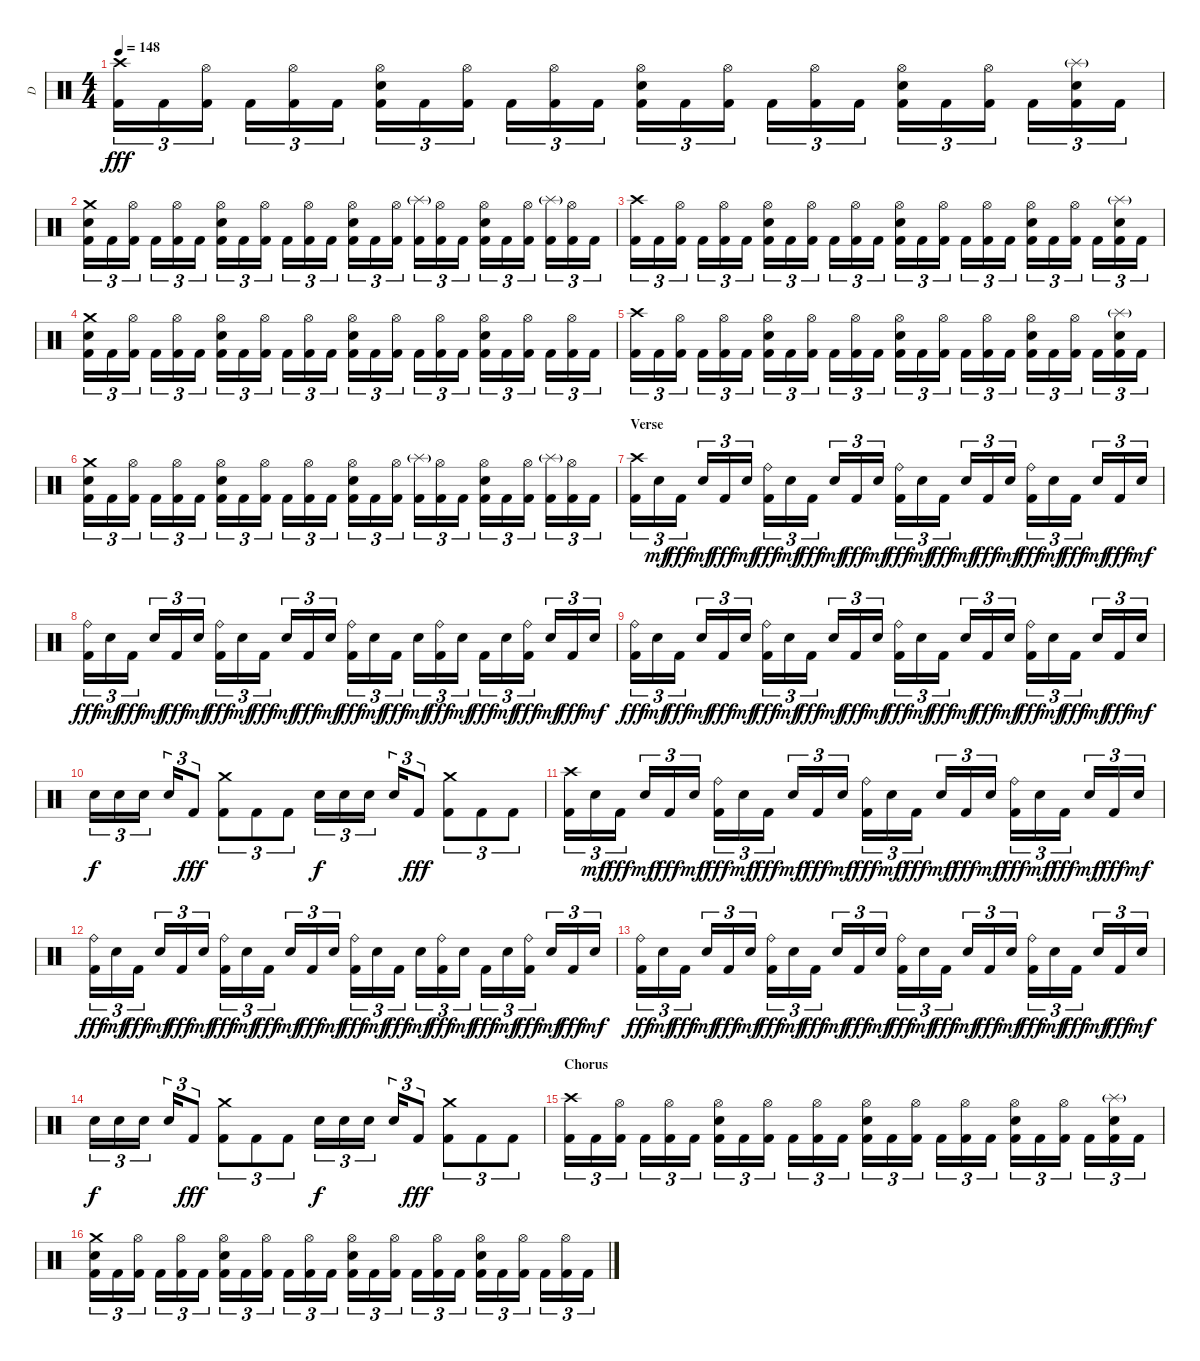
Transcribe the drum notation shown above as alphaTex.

\track ("D" "D") {instrument percussion}
\staff {score}
\articulation defaults
\ts (4 4)
\tempo 148
\clef neutral
\ks c
("Crash high (hit)" "Kick (hit) 2").16{tu (3 2) dy fff} "Kick (hit) 2".16{tu (3 2)} ("Hi-Hat (open)" "Kick (hit) 2").16{tu (3 2)} "Kick (hit) 2".16{tu (3 2)} ("Hi-Hat (open)" "Kick (hit) 2").16{tu (3 2)} "Kick (hit) 2".16{tu (3 2)} ("Hi-Hat (open)" "Electric Snare (hit)" "Kick (hit) 2").16{tu (3 2)} "Kick (hit) 2".16{tu (3 2)} ("Hi-Hat (open)" "Kick (hit) 2").16{tu (3 2)} "Kick (hit) 2".16{tu (3 2)} ("Hi-Hat (open)" "Kick (hit) 2").16{tu (3 2)} "Kick (hit) 2".16{tu (3 2)} ("Hi-Hat (open)" "Electric Snare (hit)" "Kick (hit) 2").16{tu (3 2)} "Kick (hit) 2".16{tu (3 2)} ("Hi-Hat (open)" "Kick (hit) 2").16{tu (3 2)} "Kick (hit) 2".16{tu (3 2)} ("Hi-Hat (open)" "Kick (hit) 2").16{tu (3 2)} "Kick (hit) 2".16{tu (3 2)} ("Hi-Hat (open)" "Electric Snare (hit)" "Kick (hit) 2").16{tu (3 2)} "Kick (hit) 2".16{tu (3 2)} ("Hi-Hat (open)" "Kick (hit) 2").16{tu (3 2)} "Kick (hit) 2".16{tu (3 2)} ("Splash (hit)"{g} "Electric Snare (hit)" "Kick (hit) 2").16{tu (3 2)} "Kick (hit) 2".16{tu (3 2)} |
("Crash medium (hit)" "Electric Snare (hit)" "Kick (hit) 2").16{tu (3 2)} "Kick (hit) 2".16{tu (3 2)} ("Hi-Hat (open)" "Kick (hit) 2").16{tu (3 2)} "Kick (hit) 2".16{tu (3 2)} ("Hi-Hat (open)" "Kick (hit) 2").16{tu (3 2)} "Kick (hit) 2".16{tu (3 2)} ("Hi-Hat (open)" "Electric Snare (hit)" "Kick (hit) 2").16{tu (3 2)} "Kick (hit) 2".16{tu (3 2)} ("Hi-Hat (open)" "Kick (hit) 2").16{tu (3 2)} "Kick (hit) 2".16{tu (3 2)} ("Hi-Hat (open)" "Kick (hit) 2").16{tu (3 2)} "Kick (hit) 2".16{tu (3 2)} ("Hi-Hat (open)" "Electric Snare (hit)" "Kick (hit) 2").16{tu (3 2)} "Kick (hit) 2".16{tu (3 2)} ("Hi-Hat (open)" "Kick (hit) 2").16{tu (3 2)} ("Splash (hit)"{g} "Kick (hit) 2").16{tu (3 2)} ("Hi-Hat (open)" "Kick (hit) 2").16{tu (3 2)} "Kick (hit) 2".16{tu (3 2)} ("Hi-Hat (open)" "Electric Snare (hit)" "Kick (hit) 2").16{tu (3 2)} "Kick (hit) 2".16{tu (3 2)} ("Hi-Hat (open)" "Kick (hit) 2").16{tu (3 2)} ("Splash (hit)"{g} "Kick (hit) 2").16{tu (3 2)} ("Hi-Hat (open)" "Kick (hit) 2").16{tu (3 2)} "Kick (hit) 2".16{tu (3 2)} |
("Crash high (hit)" "Kick (hit) 2").16{tu (3 2)} "Kick (hit) 2".16{tu (3 2)} ("Hi-Hat (open)" "Kick (hit) 2").16{tu (3 2)} "Kick (hit) 2".16{tu (3 2)} ("Hi-Hat (open)" "Kick (hit) 2").16{tu (3 2)} "Kick (hit) 2".16{tu (3 2)} ("Hi-Hat (open)" "Electric Snare (hit)" "Kick (hit) 2").16{tu (3 2)} "Kick (hit) 2".16{tu (3 2)} ("Hi-Hat (open)" "Kick (hit) 2").16{tu (3 2)} "Kick (hit) 2".16{tu (3 2)} ("Hi-Hat (open)" "Kick (hit) 2").16{tu (3 2)} "Kick (hit) 2".16{tu (3 2)} ("Hi-Hat (open)" "Electric Snare (hit)" "Kick (hit) 2").16{tu (3 2)} "Kick (hit) 2".16{tu (3 2)} ("Hi-Hat (open)" "Kick (hit) 2").16{tu (3 2)} "Kick (hit) 2".16{tu (3 2)} ("Hi-Hat (open)" "Kick (hit) 2").16{tu (3 2)} "Kick (hit) 2".16{tu (3 2)} ("Hi-Hat (open)" "Electric Snare (hit)" "Kick (hit) 2").16{tu (3 2)} "Kick (hit) 2".16{tu (3 2)} ("Hi-Hat (open)" "Kick (hit) 2").16{tu (3 2)} "Kick (hit) 2".16{tu (3 2)} ("Splash (hit)"{g} "Electric Snare (hit)" "Kick (hit) 2").16{tu (3 2)} "Kick (hit) 2".16{tu (3 2)} |
("Crash medium (hit)" "Electric Snare (hit)" "Kick (hit) 2").16{tu (3 2)} "Kick (hit) 2".16{tu (3 2)} ("Hi-Hat (open)" "Kick (hit) 2").16{tu (3 2)} "Kick (hit) 2".16{tu (3 2)} ("Hi-Hat (open)" "Kick (hit) 2").16{tu (3 2)} "Kick (hit) 2".16{tu (3 2)} ("Hi-Hat (open)" "Electric Snare (hit)" "Kick (hit) 2").16{tu (3 2)} "Kick (hit) 2".16{tu (3 2)} ("Hi-Hat (open)" "Kick (hit) 2").16{tu (3 2)} "Kick (hit) 2".16{tu (3 2)} ("Hi-Hat (open)" "Kick (hit) 2").16{tu (3 2)} "Kick (hit) 2".16{tu (3 2)} ("Hi-Hat (open)" "Electric Snare (hit)" "Kick (hit) 2").16{tu (3 2)} "Kick (hit) 2".16{tu (3 2)} ("Hi-Hat (open)" "Kick (hit) 2").16{tu (3 2)} "Kick (hit) 2".16{tu (3 2)} ("Hi-Hat (open)" "Kick (hit) 2").16{tu (3 2)} "Kick (hit) 2".16{tu (3 2)} ("Hi-Hat (open)" "Electric Snare (hit)" "Kick (hit) 2").16{tu (3 2)} "Kick (hit) 2".16{tu (3 2)} ("Hi-Hat (open)" "Kick (hit) 2").16{tu (3 2)} "Kick (hit) 2".16{tu (3 2)} ("Hi-Hat (open)" "Kick (hit) 2").16{tu (3 2)} "Kick (hit) 2".16{tu (3 2)} |
("Crash high (hit)" "Kick (hit) 2").16{tu (3 2)} "Kick (hit) 2".16{tu (3 2)} ("Hi-Hat (open)" "Kick (hit) 2").16{tu (3 2)} "Kick (hit) 2".16{tu (3 2)} ("Hi-Hat (open)" "Kick (hit) 2").16{tu (3 2)} "Kick (hit) 2".16{tu (3 2)} ("Hi-Hat (open)" "Electric Snare (hit)" "Kick (hit) 2").16{tu (3 2)} "Kick (hit) 2".16{tu (3 2)} ("Hi-Hat (open)" "Kick (hit) 2").16{tu (3 2)} "Kick (hit) 2".16{tu (3 2)} ("Hi-Hat (open)" "Kick (hit) 2").16{tu (3 2)} "Kick (hit) 2".16{tu (3 2)} ("Hi-Hat (open)" "Electric Snare (hit)" "Kick (hit) 2").16{tu (3 2)} "Kick (hit) 2".16{tu (3 2)} ("Hi-Hat (open)" "Kick (hit) 2").16{tu (3 2)} "Kick (hit) 2".16{tu (3 2)} ("Hi-Hat (open)" "Kick (hit) 2").16{tu (3 2)} "Kick (hit) 2".16{tu (3 2)} ("Hi-Hat (open)" "Electric Snare (hit)" "Kick (hit) 2").16{tu (3 2)} "Kick (hit) 2".16{tu (3 2)} ("Hi-Hat (open)" "Kick (hit) 2").16{tu (3 2)} "Kick (hit) 2".16{tu (3 2)} ("Splash (hit)"{g} "Electric Snare (hit)" "Kick (hit) 2").16{tu (3 2)} "Kick (hit) 2".16{tu (3 2)} |
("Crash medium (hit)" "Electric Snare (hit)" "Kick (hit) 2").16{tu (3 2)} "Kick (hit) 2".16{tu (3 2)} ("Hi-Hat (open)" "Kick (hit) 2").16{tu (3 2)} "Kick (hit) 2".16{tu (3 2)} ("Hi-Hat (open)" "Kick (hit) 2").16{tu (3 2)} "Kick (hit) 2".16{tu (3 2)} ("Hi-Hat (open)" "Electric Snare (hit)" "Kick (hit) 2").16{tu (3 2)} "Kick (hit) 2".16{tu (3 2)} ("Hi-Hat (open)" "Kick (hit) 2").16{tu (3 2)} "Kick (hit) 2".16{tu (3 2)} ("Hi-Hat (open)" "Kick (hit) 2").16{tu (3 2)} "Kick (hit) 2".16{tu (3 2)} ("Hi-Hat (open)" "Electric Snare (hit)" "Kick (hit) 2").16{tu (3 2)} "Kick (hit) 2".16{tu (3 2)} ("Hi-Hat (open)" "Kick (hit) 2").16{tu (3 2)} ("Splash (hit)"{g} "Kick (hit) 2").16{tu (3 2)} ("Hi-Hat (open)" "Kick (hit) 2").16{tu (3 2)} "Kick (hit) 2".16{tu (3 2)} ("Hi-Hat (open)" "Electric Snare (hit)" "Kick (hit) 2").16{tu (3 2)} "Kick (hit) 2".16{tu (3 2)} ("Hi-Hat (open)" "Kick (hit) 2").16{tu (3 2)} ("Splash (hit)"{g} "Kick (hit) 2").16{tu (3 2)} ("Hi-Hat (open)" "Kick (hit) 2").16{tu (3 2)} "Kick (hit) 2".16{tu (3 2)} |
\section ("" "Verse")
("Crash high (hit)" "Kick (hit) 2").16{tu (3 2)} "Electric Snare (hit)".16{tu (3 2) dy mf} "Kick (hit) 2".16{tu (3 2) dy fff} "Electric Snare (hit)".16{tu (3 2) dy mf} "Kick (hit) 2".16{tu (3 2) dy fff} "Electric Snare (hit)".16{tu (3 2) dy mf} ("Ride (bell)" "Kick (hit) 2").16{tu (3 2) dy fff} "Electric Snare (hit)".16{tu (3 2) dy mf} "Kick (hit) 2".16{tu (3 2) dy fff} "Electric Snare (hit)".16{tu (3 2) dy mf} "Kick (hit) 2".16{tu (3 2) dy fff} "Electric Snare (hit)".16{tu (3 2) dy mf} ("Ride (bell)" "Kick (hit) 2").16{tu (3 2) dy fff} "Electric Snare (hit)".16{tu (3 2) dy mf} "Kick (hit) 2".16{tu (3 2) dy fff} "Electric Snare (hit)".16{tu (3 2) dy mf} "Kick (hit) 2".16{tu (3 2) dy fff} "Electric Snare (hit)".16{tu (3 2) dy mf} ("Ride (bell)" "Kick (hit) 2").16{tu (3 2) dy fff} "Electric Snare (hit)".16{tu (3 2) dy mf} "Kick (hit) 2".16{tu (3 2) dy fff} "Electric Snare (hit)".16{tu (3 2) dy mf} "Kick (hit) 2".16{tu (3 2) dy fff} "Electric Snare (hit)".16{tu (3 2) dy mf} |
("Ride (bell)" "Kick (hit) 2").16{tu (3 2) dy fff} "Electric Snare (hit)".16{tu (3 2) dy mf} "Kick (hit) 2".16{tu (3 2) dy fff} "Electric Snare (hit)".16{tu (3 2) dy mf} "Kick (hit) 2".16{tu (3 2) dy fff} "Electric Snare (hit)".16{tu (3 2) dy mf} ("Ride (bell)" "Kick (hit) 2").16{tu (3 2) dy fff} "Electric Snare (hit)".16{tu (3 2) dy mf} "Kick (hit) 2".16{tu (3 2) dy fff} "Electric Snare (hit)".16{tu (3 2) dy mf} "Kick (hit) 2".16{tu (3 2) dy fff} "Electric Snare (hit)".16{tu (3 2) dy mf} ("Ride (bell)" "Kick (hit) 2").16{tu (3 2) dy fff} "Electric Snare (hit)".16{tu (3 2) dy mf} "Kick (hit) 2".16{tu (3 2) dy fff} "Electric Snare (hit)".16{tu (3 2) dy mf} ("Ride (bell)" "Kick (hit) 2").16{tu (3 2) dy fff} "Electric Snare (hit)".16{tu (3 2) dy mf} "Kick (hit) 2".16{tu (3 2) dy fff} "Electric Snare (hit)".16{tu (3 2) dy mf} ("Ride (bell)" "Kick (hit) 2").16{tu (3 2) dy fff} "Electric Snare (hit)".16{tu (3 2) dy mf} "Kick (hit) 2".16{tu (3 2) dy fff} "Electric Snare (hit)".16{tu (3 2) dy mf} |
("Ride (bell)" "Kick (hit) 2").16{tu (3 2) dy fff} "Electric Snare (hit)".16{tu (3 2) dy mf} "Kick (hit) 2".16{tu (3 2) dy fff} "Electric Snare (hit)".16{tu (3 2) dy mf} "Kick (hit) 2".16{tu (3 2) dy fff} "Electric Snare (hit)".16{tu (3 2) dy mf} ("Ride (bell)" "Kick (hit) 2").16{tu (3 2) dy fff} "Electric Snare (hit)".16{tu (3 2) dy mf} "Kick (hit) 2".16{tu (3 2) dy fff} "Electric Snare (hit)".16{tu (3 2) dy mf} "Kick (hit) 2".16{tu (3 2) dy fff} "Electric Snare (hit)".16{tu (3 2) dy mf} ("Ride (bell)" "Kick (hit) 2").16{tu (3 2) dy fff} "Electric Snare (hit)".16{tu (3 2) dy mf} "Kick (hit) 2".16{tu (3 2) dy fff} "Electric Snare (hit)".16{tu (3 2) dy mf} "Kick (hit) 2".16{tu (3 2) dy fff} "Electric Snare (hit)".16{tu (3 2) dy mf} ("Ride (bell)" "Kick (hit) 2").16{tu (3 2) dy fff} "Electric Snare (hit)".16{tu (3 2) dy mf} "Kick (hit) 2".16{tu (3 2) dy fff} "Electric Snare (hit)".16{tu (3 2) dy mf} "Kick (hit) 2".16{tu (3 2) dy fff} "Electric Snare (hit)".16{tu (3 2) dy mf} |
"Electric Snare (hit)".16{tu (3 2) dy f} "Electric Snare (hit)".16{tu (3 2)} "Electric Snare (hit)".16{tu (3 2)} "Electric Snare (hit)".16{tu (3 2)} "Kick (hit) 2".8{tu (3 2) dy fff} ("Crash medium (hit)" "Kick (hit) 2").8{tu (3 2)} "Kick (hit) 2".8{tu (3 2)} "Kick (hit) 2".8{tu (3 2)} "Electric Snare (hit)".16{tu (3 2) dy f} "Electric Snare (hit)".16{tu (3 2)} "Electric Snare (hit)".16{tu (3 2)} "Electric Snare (hit)".16{tu (3 2)} "Kick (hit) 2".8{tu (3 2) dy fff} ("Crash medium (hit)" "Kick (hit) 2").8{tu (3 2)} "Kick (hit) 2".8{tu (3 2)} "Kick (hit) 2".8{tu (3 2)} |
("Crash high (hit)" "Kick (hit) 2").16{tu (3 2)} "Electric Snare (hit)".16{tu (3 2) dy mf} "Kick (hit) 2".16{tu (3 2) dy fff} "Electric Snare (hit)".16{tu (3 2) dy mf} "Kick (hit) 2".16{tu (3 2) dy fff} "Electric Snare (hit)".16{tu (3 2) dy mf} ("Ride (bell)" "Kick (hit) 2").16{tu (3 2) dy fff} "Electric Snare (hit)".16{tu (3 2) dy mf} "Kick (hit) 2".16{tu (3 2) dy fff} "Electric Snare (hit)".16{tu (3 2) dy mf} "Kick (hit) 2".16{tu (3 2) dy fff} "Electric Snare (hit)".16{tu (3 2) dy mf} ("Ride (bell)" "Kick (hit) 2").16{tu (3 2) dy fff} "Electric Snare (hit)".16{tu (3 2) dy mf} "Kick (hit) 2".16{tu (3 2) dy fff} "Electric Snare (hit)".16{tu (3 2) dy mf} "Kick (hit) 2".16{tu (3 2) dy fff} "Electric Snare (hit)".16{tu (3 2) dy mf} ("Ride (bell)" "Kick (hit) 2").16{tu (3 2) dy fff} "Electric Snare (hit)".16{tu (3 2) dy mf} "Kick (hit) 2".16{tu (3 2) dy fff} "Electric Snare (hit)".16{tu (3 2) dy mf} "Kick (hit) 2".16{tu (3 2) dy fff} "Electric Snare (hit)".16{tu (3 2) dy mf} |
("Ride (bell)" "Kick (hit) 2").16{tu (3 2) dy fff} "Electric Snare (hit)".16{tu (3 2) dy mf} "Kick (hit) 2".16{tu (3 2) dy fff} "Electric Snare (hit)".16{tu (3 2) dy mf} "Kick (hit) 2".16{tu (3 2) dy fff} "Electric Snare (hit)".16{tu (3 2) dy mf} ("Ride (bell)" "Kick (hit) 2").16{tu (3 2) dy fff} "Electric Snare (hit)".16{tu (3 2) dy mf} "Kick (hit) 2".16{tu (3 2) dy fff} "Electric Snare (hit)".16{tu (3 2) dy mf} "Kick (hit) 2".16{tu (3 2) dy fff} "Electric Snare (hit)".16{tu (3 2) dy mf} ("Ride (bell)" "Kick (hit) 2").16{tu (3 2) dy fff} "Electric Snare (hit)".16{tu (3 2) dy mf} "Kick (hit) 2".16{tu (3 2) dy fff} "Electric Snare (hit)".16{tu (3 2) dy mf} ("Ride (bell)" "Kick (hit) 2").16{tu (3 2) dy fff} "Electric Snare (hit)".16{tu (3 2) dy mf} "Kick (hit) 2".16{tu (3 2) dy fff} "Electric Snare (hit)".16{tu (3 2) dy mf} ("Ride (bell)" "Kick (hit) 2").16{tu (3 2) dy fff} "Electric Snare (hit)".16{tu (3 2) dy mf} "Kick (hit) 2".16{tu (3 2) dy fff} "Electric Snare (hit)".16{tu (3 2) dy mf} |
("Ride (bell)" "Kick (hit) 2").16{tu (3 2) dy fff} "Electric Snare (hit)".16{tu (3 2) dy mf} "Kick (hit) 2".16{tu (3 2) dy fff} "Electric Snare (hit)".16{tu (3 2) dy mf} "Kick (hit) 2".16{tu (3 2) dy fff} "Electric Snare (hit)".16{tu (3 2) dy mf} ("Ride (bell)" "Kick (hit) 2").16{tu (3 2) dy fff} "Electric Snare (hit)".16{tu (3 2) dy mf} "Kick (hit) 2".16{tu (3 2) dy fff} "Electric Snare (hit)".16{tu (3 2) dy mf} "Kick (hit) 2".16{tu (3 2) dy fff} "Electric Snare (hit)".16{tu (3 2) dy mf} ("Ride (bell)" "Kick (hit) 2").16{tu (3 2) dy fff} "Electric Snare (hit)".16{tu (3 2) dy mf} "Kick (hit) 2".16{tu (3 2) dy fff} "Electric Snare (hit)".16{tu (3 2) dy mf} "Kick (hit) 2".16{tu (3 2) dy fff} "Electric Snare (hit)".16{tu (3 2) dy mf} ("Ride (bell)" "Kick (hit) 2").16{tu (3 2) dy fff} "Electric Snare (hit)".16{tu (3 2) dy mf} "Kick (hit) 2".16{tu (3 2) dy fff} "Electric Snare (hit)".16{tu (3 2) dy mf} "Kick (hit) 2".16{tu (3 2) dy fff} "Electric Snare (hit)".16{tu (3 2) dy mf} |
"Electric Snare (hit)".16{tu (3 2) dy f} "Electric Snare (hit)".16{tu (3 2)} "Electric Snare (hit)".16{tu (3 2)} "Electric Snare (hit)".16{tu (3 2)} "Kick (hit) 2".8{tu (3 2) dy fff} ("Crash medium (hit)" "Kick (hit) 2").8{tu (3 2)} "Kick (hit) 2".8{tu (3 2)} "Kick (hit) 2".8{tu (3 2)} "Electric Snare (hit)".16{tu (3 2) dy f} "Electric Snare (hit)".16{tu (3 2)} "Electric Snare (hit)".16{tu (3 2)} "Electric Snare (hit)".16{tu (3 2)} "Kick (hit) 2".8{tu (3 2) dy fff} ("Crash medium (hit)" "Kick (hit) 2").8{tu (3 2)} "Kick (hit) 2".8{tu (3 2)} "Kick (hit) 2".8{tu (3 2)} |
\section ("" "Chorus")
("Crash high (hit)" "Kick (hit) 2").16{tu (3 2)} "Kick (hit) 2".16{tu (3 2)} ("Hi-Hat (open)" "Kick (hit) 2").16{tu (3 2)} "Kick (hit) 2".16{tu (3 2)} ("Hi-Hat (open)" "Kick (hit) 2").16{tu (3 2)} "Kick (hit) 2".16{tu (3 2)} ("Hi-Hat (open)" "Electric Snare (hit)" "Kick (hit) 2").16{tu (3 2)} "Kick (hit) 2".16{tu (3 2)} ("Hi-Hat (open)" "Kick (hit) 2").16{tu (3 2)} "Kick (hit) 2".16{tu (3 2)} ("Hi-Hat (open)" "Kick (hit) 2").16{tu (3 2)} "Kick (hit) 2".16{tu (3 2)} ("Hi-Hat (open)" "Electric Snare (hit)" "Kick (hit) 2").16{tu (3 2)} "Kick (hit) 2".16{tu (3 2)} ("Hi-Hat (open)" "Kick (hit) 2").16{tu (3 2)} "Kick (hit) 2".16{tu (3 2)} ("Hi-Hat (open)" "Kick (hit) 2").16{tu (3 2)} "Kick (hit) 2".16{tu (3 2)} ("Hi-Hat (open)" "Electric Snare (hit)" "Kick (hit) 2").16{tu (3 2)} "Kick (hit) 2".16{tu (3 2)} ("Hi-Hat (open)" "Kick (hit) 2").16{tu (3 2)} "Kick (hit) 2".16{tu (3 2)} ("Splash (hit)"{g} "Electric Snare (hit)" "Kick (hit) 2").16{tu (3 2)} "Kick (hit) 2".16{tu (3 2)} |
("Crash medium (hit)" "Electric Snare (hit)" "Kick (hit) 2").16{tu (3 2)} "Kick (hit) 2".16{tu (3 2)} ("Hi-Hat (open)" "Kick (hit) 2").16{tu (3 2)} "Kick (hit) 2".16{tu (3 2)} ("Hi-Hat (open)" "Kick (hit) 2").16{tu (3 2)} "Kick (hit) 2".16{tu (3 2)} ("Hi-Hat (open)" "Electric Snare (hit)" "Kick (hit) 2").16{tu (3 2)} "Kick (hit) 2".16{tu (3 2)} ("Hi-Hat (open)" "Kick (hit) 2").16{tu (3 2)} "Kick (hit) 2".16{tu (3 2)} ("Hi-Hat (open)" "Kick (hit) 2").16{tu (3 2)} "Kick (hit) 2".16{tu (3 2)} ("Hi-Hat (open)" "Electric Snare (hit)" "Kick (hit) 2").16{tu (3 2)} "Kick (hit) 2".16{tu (3 2)} ("Hi-Hat (open)" "Kick (hit) 2").16{tu (3 2)} "Kick (hit) 2".16{tu (3 2)} ("Hi-Hat (open)" "Kick (hit) 2").16{tu (3 2)} "Kick (hit) 2".16{tu (3 2)} ("Hi-Hat (open)" "Electric Snare (hit)" "Kick (hit) 2").16{tu (3 2)} "Kick (hit) 2".16{tu (3 2)} ("Hi-Hat (open)" "Kick (hit) 2").16{tu (3 2)} "Kick (hit) 2".16{tu (3 2)} ("Hi-Hat (open)" "Kick (hit) 2").16{tu (3 2)} "Kick (hit) 2".16{tu (3 2)}
